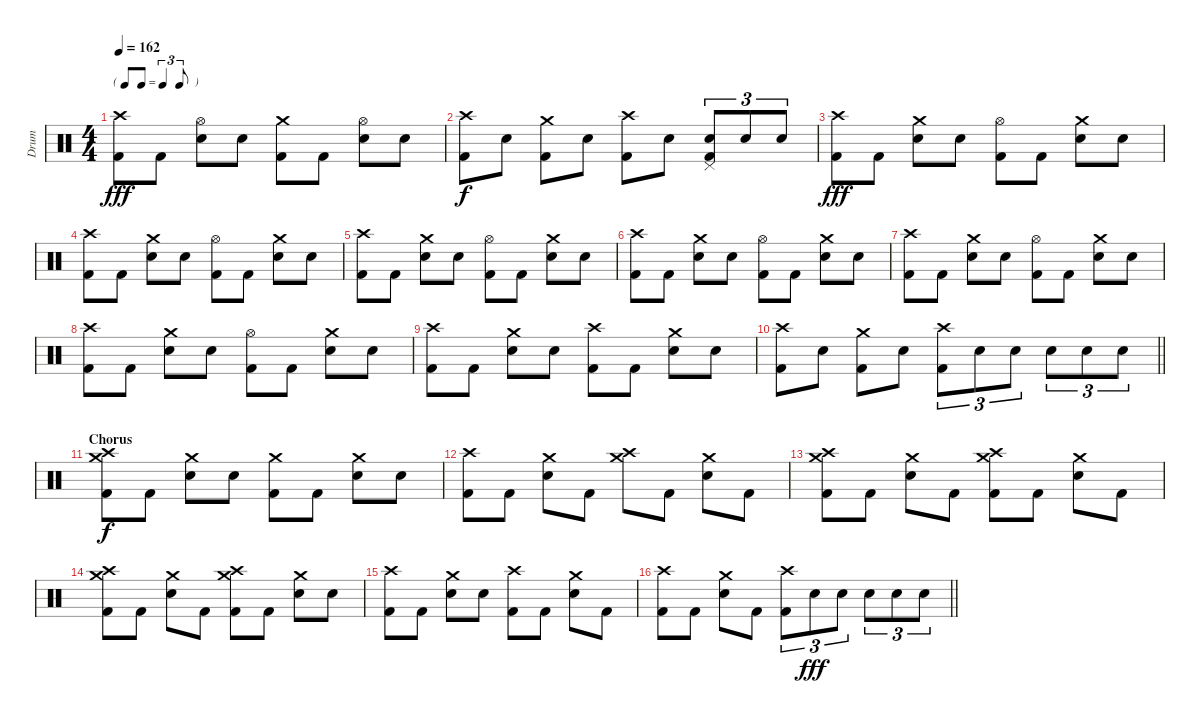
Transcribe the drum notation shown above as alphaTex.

\track ("Drum" "Drum") {instrument percussion}
\staff {score}
\articulation defaults
\ts (4 4)
\tf triplet8th
\tempo 162
\clef neutral
\ks c
("Crash high (hit)" "Kick (hit) 2").8{dy fff} "Kick (hit) 2".8 ("Hi-Hat (open)" "Snare (hit) 2").8 "Snare (hit) 2".8 ("Crash medium (hit)" "Kick (hit) 2").8 "Kick (hit) 2".8 ("Hi-Hat (open)" "Snare (hit) 2").8 "Snare (hit) 2".8 |
("Crash high (hit)" "Kick (hit) 2").8{dy f} "Snare (hit) 2".8 ("Crash medium (hit)" "Kick (hit) 2").8 "Snare (hit) 2".8 ("Crash high (hit)" "Kick (hit) 2").8 "Snare (hit) 2".8 ("Snare (hit) 2" "Pedal Hi-Hat (hit)" "Kick (hit) 2").8{tu (3 2)} "Snare (hit) 2".8{tu (3 2)} "Snare (hit) 2".8{tu (3 2)} |
("Crash high (hit)" "Kick (hit) 2").8{dy fff} "Kick (hit) 2".8 ("Crash medium (hit)" "Snare (hit) 2").8 "Snare (hit) 2".8 ("Hi-Hat (open)" "Kick (hit) 2").8 "Kick (hit) 2".8 ("Crash medium (hit)" "Snare (hit) 2").8 "Snare (hit) 2".8 |
("Crash high (hit)" "Kick (hit) 2").8 "Kick (hit) 2".8 ("Crash medium (hit)" "Snare (hit) 2").8 "Snare (hit) 2".8 ("Hi-Hat (open)" "Kick (hit) 2").8 "Kick (hit) 2".8 ("Crash medium (hit)" "Snare (hit) 2").8 "Snare (hit) 2".8 |
("Crash high (hit)" "Kick (hit) 2").8 "Kick (hit) 2".8 ("Crash medium (hit)" "Snare (hit) 2").8 "Snare (hit) 2".8 ("Hi-Hat (open)" "Kick (hit) 2").8 "Kick (hit) 2".8 ("Crash medium (hit)" "Snare (hit) 2").8 "Snare (hit) 2".8 |
("Crash high (hit)" "Kick (hit) 2").8 "Kick (hit) 2".8 ("Crash medium (hit)" "Snare (hit) 2").8 "Snare (hit) 2".8 ("Hi-Hat (open)" "Kick (hit) 2").8 "Kick (hit) 2".8 ("Crash medium (hit)" "Snare (hit) 2").8 "Snare (hit) 2".8 |
("Crash high (hit)" "Kick (hit) 2").8 "Kick (hit) 2".8 ("Crash medium (hit)" "Snare (hit) 2").8 "Snare (hit) 2".8 ("Hi-Hat (open)" "Kick (hit) 2").8 "Kick (hit) 2".8 ("Crash medium (hit)" "Snare (hit) 2").8 "Snare (hit) 2".8 |
("Crash high (hit)" "Kick (hit) 2").8 "Kick (hit) 2".8 ("Crash medium (hit)" "Snare (hit) 2").8 "Snare (hit) 2".8 ("Hi-Hat (open)" "Kick (hit) 2").8 "Kick (hit) 2".8 ("Crash medium (hit)" "Snare (hit) 2").8 "Snare (hit) 2".8 |
("Crash high (hit)" "Kick (hit) 2").8 "Kick (hit) 2".8 ("Crash medium (hit)" "Snare (hit) 2").8 "Snare (hit) 2".8 ("Crash high (hit)" "Kick (hit) 2").8 "Kick (hit) 2".8 ("Crash medium (hit)" "Snare (hit) 2").8 "Snare (hit) 2".8 |
\barLineRight lightlight
("Crash high (hit)" "Kick (hit) 2").8 "Snare (hit) 2".8 ("Crash medium (hit)" "Kick (hit) 2").8 "Snare (hit) 2".8 ("Crash high (hit)" "Kick (hit) 2").8{tu (3 2)} "Snare (hit) 2".8{tu (3 2)} "Snare (hit) 2".8{tu (3 2)} "Snare (hit) 2".8{tu (3 2)} "Snare (hit) 2".8{tu (3 2)} "Snare (hit) 2".8{tu (3 2)} |
\section ("" "Chorus")
("Crash medium (hit)" "Crash high (hit)" "Kick (hit) 2").8{dy f} "Kick (hit) 2".8 ("Crash medium (hit)" "Snare (hit) 2").8 "Snare (hit) 2".8 ("Crash medium (hit)" "Kick (hit) 2").8 "Kick (hit) 2".8 ("Crash medium (hit)" "Snare (hit) 2").8 "Snare (hit) 2".8 |
("Crash high (hit)" "Kick (hit) 2").8 "Kick (hit) 2".8 ("Crash medium (hit)" "Snare (hit) 2").8 "Kick (hit) 2".8 ("Crash medium (hit)" "Crash high (hit)").8 "Kick (hit) 2".8 ("Crash medium (hit)" "Snare (hit) 2").8 "Kick (hit) 2".8 |
("Crash medium (hit)" "Crash high (hit)" "Kick (hit) 2").8 "Kick (hit) 2".8 ("Crash medium (hit)" "Snare (hit) 2").8 "Kick (hit) 2".8 ("Crash medium (hit)" "Crash high (hit)" "Kick (hit) 2").8 "Kick (hit) 2".8 ("Crash medium (hit)" "Snare (hit) 2").8 "Kick (hit) 2".8 |
("Crash medium (hit)" "Crash high (hit)" "Kick (hit) 2").8 "Kick (hit) 2".8 ("Crash medium (hit)" "Snare (hit) 2").8 "Kick (hit) 2".8 ("Crash medium (hit)" "Crash high (hit)" "Kick (hit) 2").8 "Kick (hit) 2".8 ("Crash medium (hit)" "Snare (hit) 2").8 "Snare (hit) 2".8 |
("Crash high (hit)" "Kick (hit) 2").8 "Kick (hit) 2".8 ("Crash medium (hit)" "Snare (hit) 2").8 "Snare (hit) 2".8 ("Crash high (hit)" "Kick (hit) 2").8 "Kick (hit) 2".8 ("Crash medium (hit)" "Snare (hit) 2").8 "Kick (hit) 2".8 |
\barLineRight lightlight
("Crash high (hit)" "Kick (hit) 2").8 "Kick (hit) 2".8 ("Crash medium (hit)" "Snare (hit) 2").8 "Kick (hit) 2".8 ("Crash high (hit)" "Kick (hit) 2").8{tu (3 2)} "Snare (hit) 2".8{tu (3 2) dy fff} "Snare (hit) 2".8{tu (3 2)} "Snare (hit) 2".8{tu (3 2)} "Snare (hit) 2".8{tu (3 2)} "Snare (hit) 2".8{tu (3 2)}
